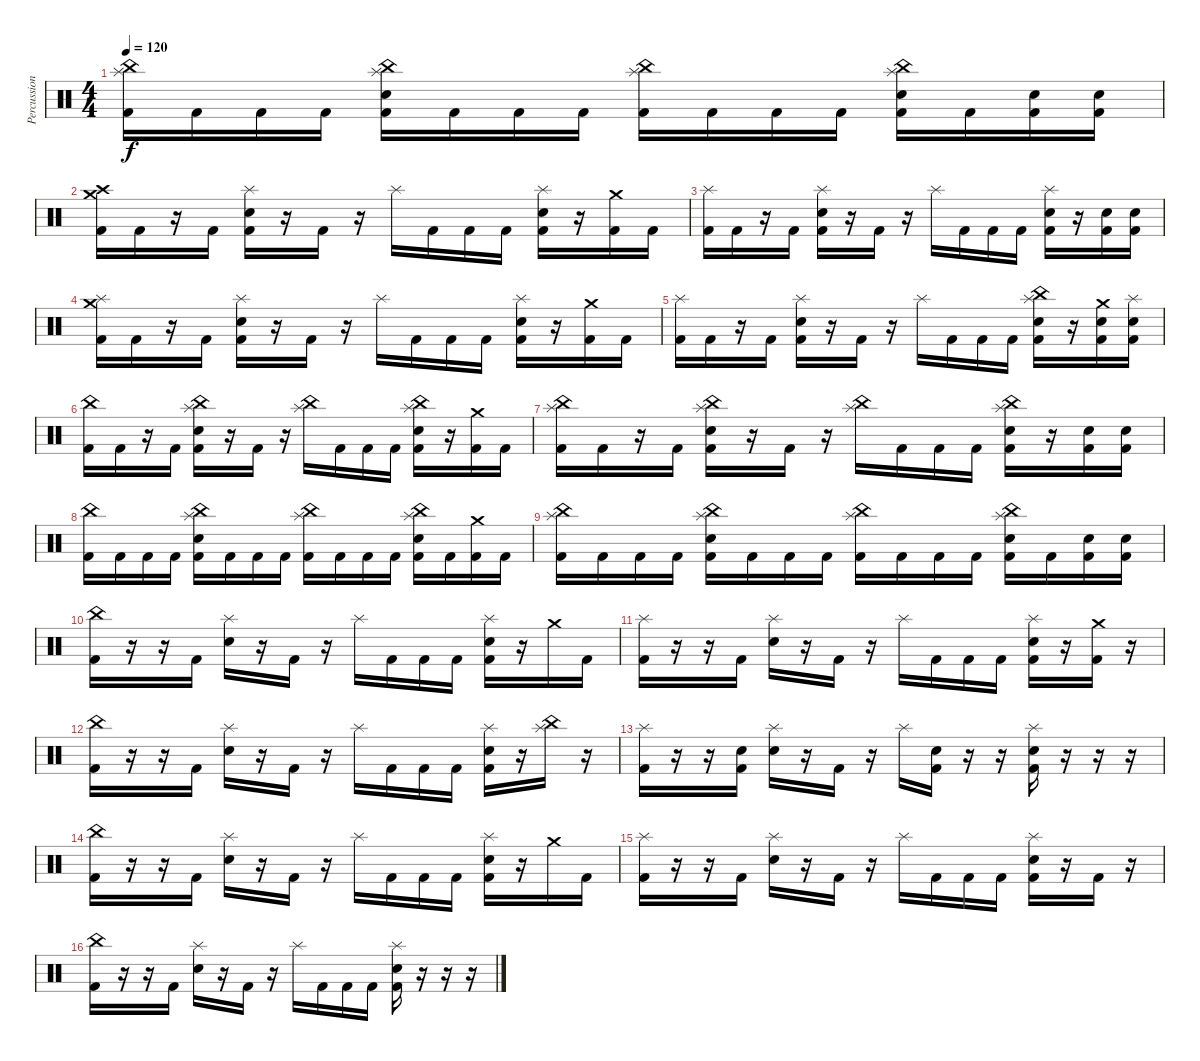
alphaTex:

\track ("Percussion" "Percussion") {instrument percussion}
\staff {score}
\articulation defaults
\ts (4 4)
\tempo 120
\clef neutral
\ks c
("China (hit)" "Splash (hit)" "Kick (hit) 2").16{dy f} "Kick (hit) 2".16 "Kick (hit) 2".16 "Kick (hit) 2".16 ("China (hit)" "Splash (hit)" "Electric Snare (hit)" "Kick (hit) 2").16 "Kick (hit) 2".16 "Kick (hit) 2".16 "Kick (hit) 2".16 ("China (hit)" "Splash (hit)" "Kick (hit) 2").16 "Kick (hit) 2".16 "Kick (hit) 2".16 "Kick (hit) 2".16 ("China (hit)" "Splash (hit)" "Electric Snare (hit)" "Kick (hit) 2").16 "Kick (hit) 2".16 ("Electric Snare (hit)" "Kick (hit) 2").16 ("Electric Snare (hit)" "Kick (hit) 2").16 |
("Crash medium (hit)" "Crash high (hit)" "Kick (hit) 2").16 "Kick (hit) 2".16 r.16 "Kick (hit) 2".16 ("Splash (hit)" "Electric Snare (hit)" "Kick (hit) 2").16 r.16 "Kick (hit) 2".16 r.16 "Splash (hit)".16 "Kick (hit) 2".16 "Kick (hit) 2".16 "Kick (hit) 2".16 ("Splash (hit)" "Electric Snare (hit)" "Kick (hit) 2").16 r.16 ("Crash medium (hit)" "Kick (hit) 2").16 "Kick (hit) 2".16 |
("Splash (hit)" "Kick (hit) 2").16 "Kick (hit) 2".16 r.16 "Kick (hit) 2".16 ("Splash (hit)" "Electric Snare (hit)" "Kick (hit) 2").16 r.16 "Kick (hit) 2".16 r.16 "Splash (hit)".16 "Kick (hit) 2".16 "Kick (hit) 2".16 "Kick (hit) 2".16 ("Splash (hit)" "Electric Snare (hit)" "Kick (hit) 2").16 r.16 ("Electric Snare (hit)" "Kick (hit) 2").16 ("Electric Snare (hit)" "Kick (hit) 2").16 |
("Splash (hit)" "Crash medium (hit)" "Kick (hit) 2").16 "Kick (hit) 2".16 r.16 "Kick (hit) 2".16 ("Splash (hit)" "Electric Snare (hit)" "Kick (hit) 2").16 r.16 "Kick (hit) 2".16 r.16 "Splash (hit)".16 "Kick (hit) 2".16 "Kick (hit) 2".16 "Kick (hit) 2".16 ("Splash (hit)" "Electric Snare (hit)" "Kick (hit) 2").16 r.16 ("Crash medium (hit)" "Kick (hit) 2").16 "Kick (hit) 2".16 |
("Splash (hit)" "Kick (hit) 2").16 "Kick (hit) 2".16 r.16 "Kick (hit) 2".16 ("Splash (hit)" "Electric Snare (hit)" "Kick (hit) 2").16 r.16 "Kick (hit) 2".16 r.16 "Splash (hit)".16 "Kick (hit) 2".16 "Kick (hit) 2".16 "Kick (hit) 2".16 ("China (hit)" "Splash (hit)" "Electric Snare (hit)" "Kick (hit) 2").16 r.16 ("Crash medium (hit)" "Electric Snare (hit)" "Kick (hit) 2").16 ("Splash (hit)" "Electric Snare (hit)" "Kick (hit) 2").16 |
("China (hit)" "Kick (hit) 2").16 "Kick (hit) 2".16 r.16 "Kick (hit) 2".16 ("China (hit)" "Splash (hit)" "Electric Snare (hit)" "Kick (hit) 2").16 r.16 "Kick (hit) 2".16 r.16 ("China (hit)" "Splash (hit)").16 "Kick (hit) 2".16 "Kick (hit) 2".16 "Kick (hit) 2".16 ("China (hit)" "Splash (hit)" "Electric Snare (hit)" "Kick (hit) 2").16 r.16 ("Crash medium (hit)" "Kick (hit) 2").16 "Kick (hit) 2".16 |
("China (hit)" "Splash (hit)" "Kick (hit) 2").16 "Kick (hit) 2".16 r.16 "Kick (hit) 2".16 ("China (hit)" "Splash (hit)" "Electric Snare (hit)" "Kick (hit) 2").16 r.16 "Kick (hit) 2".16 r.16 ("China (hit)" "Splash (hit)").16 "Kick (hit) 2".16 "Kick (hit) 2".16 "Kick (hit) 2".16 ("China (hit)" "Splash (hit)" "Electric Snare (hit)" "Kick (hit) 2").16 r.16 ("Electric Snare (hit)" "Kick (hit) 2").16 ("Electric Snare (hit)" "Kick (hit) 2").16 |
("China (hit)" "Kick (hit) 2").16 "Kick (hit) 2".16 "Kick (hit) 2".16 "Kick (hit) 2".16 ("China (hit)" "Splash (hit)" "Electric Snare (hit)" "Kick (hit) 2").16 "Kick (hit) 2".16 "Kick (hit) 2".16 "Kick (hit) 2".16 ("China (hit)" "Splash (hit)" "Kick (hit) 2").16 "Kick (hit) 2".16 "Kick (hit) 2".16 "Kick (hit) 2".16 ("China (hit)" "Splash (hit)" "Electric Snare (hit)" "Kick (hit) 2").16 "Kick (hit) 2".16 ("Crash medium (hit)" "Kick (hit) 2").16 "Kick (hit) 2".16 |
("China (hit)" "Splash (hit)" "Kick (hit) 2").16 "Kick (hit) 2".16 "Kick (hit) 2".16 "Kick (hit) 2".16 ("China (hit)" "Splash (hit)" "Electric Snare (hit)" "Kick (hit) 2").16 "Kick (hit) 2".16 "Kick (hit) 2".16 "Kick (hit) 2".16 ("China (hit)" "Splash (hit)" "Kick (hit) 2").16 "Kick (hit) 2".16 "Kick (hit) 2".16 "Kick (hit) 2".16 ("China (hit)" "Splash (hit)" "Electric Snare (hit)" "Kick (hit) 2").16 "Kick (hit) 2".16 ("Electric Snare (hit)" "Kick (hit) 2").16 ("Electric Snare (hit)" "Kick (hit) 2").16 |
("China (hit)" "Kick (hit) 2").16 r.16 r.16 "Kick (hit) 2".16 ("Splash (hit)" "Electric Snare (hit)").16 r.16 "Kick (hit) 2".16 r.16 "Splash (hit)".16 "Kick (hit) 2".16 "Kick (hit) 2".16 "Kick (hit) 2".16 ("Splash (hit)" "Electric Snare (hit)" "Kick (hit) 2").16 r.16 "Crash medium (hit)".16 "Kick (hit) 2".16 |
("Splash (hit)" "Kick (hit) 2").16 r.16 r.16 "Kick (hit) 2".16 ("Splash (hit)" "Electric Snare (hit)").16 r.16 "Kick (hit) 2".16 r.16 "Splash (hit)".16 "Kick (hit) 2".16 "Kick (hit) 2".16 "Kick (hit) 2".16 ("Splash (hit)" "Electric Snare (hit)" "Kick (hit) 2").16 r.16 ("Crash medium (hit)" "Kick (hit) 2").16 r.16 |
("China (hit)" "Kick (hit) 2").16 r.16 r.16 "Kick (hit) 2".16 ("Splash (hit)" "Electric Snare (hit)").16 r.16 "Kick (hit) 2".16 r.16 "Splash (hit)".16 "Kick (hit) 2".16 "Kick (hit) 2".16 "Kick (hit) 2".16 ("Splash (hit)" "Electric Snare (hit)" "Kick (hit) 2").16 r.16 ("China (hit)" "Splash (hit)").16 r.16 |
("Splash (hit)" "Kick (hit) 2").16 r.16 r.16 ("Electric Snare (hit)" "Kick (hit) 2").16 ("Splash (hit)" "Electric Snare (hit)").16 r.16 "Kick (hit) 2".16 r.16 "Splash (hit)".16 ("Electric Snare (hit)" "Kick (hit) 2").16 r.16 r.16 ("Splash (hit)" "Electric Snare (hit)" "Kick (hit) 2").16 r.16 r.16 r.16 |
("China (hit)" "Kick (hit) 2").16 r.16 r.16 "Kick (hit) 2".16 ("Splash (hit)" "Electric Snare (hit)").16 r.16 "Kick (hit) 2".16 r.16 "Splash (hit)".16 "Kick (hit) 2".16 "Kick (hit) 2".16 "Kick (hit) 2".16 ("Splash (hit)" "Electric Snare (hit)" "Kick (hit) 2").16 r.16 "Crash medium (hit)".16 "Kick (hit) 2".16 |
("Splash (hit)" "Kick (hit) 2").16 r.16 r.16 "Kick (hit) 2".16 ("Splash (hit)" "Electric Snare (hit)").16 r.16 "Kick (hit) 2".16 r.16 "Splash (hit)".16 "Kick (hit) 2".16 "Kick (hit) 2".16 "Kick (hit) 2".16 ("Splash (hit)" "Electric Snare (hit)" "Kick (hit) 2").16 r.16 "Kick (hit) 2".16 r.16 |
("China (hit)" "Kick (hit) 2").16 r.16 r.16 "Kick (hit) 2".16 ("Splash (hit)" "Electric Snare (hit)").16 r.16 "Kick (hit) 2".16 r.16 "Splash (hit)".16 "Kick (hit) 2".16 "Kick (hit) 2".16 "Kick (hit) 2".16 ("Splash (hit)" "Electric Snare (hit)" "Kick (hit) 2").16 r.16 r.16 r.16
